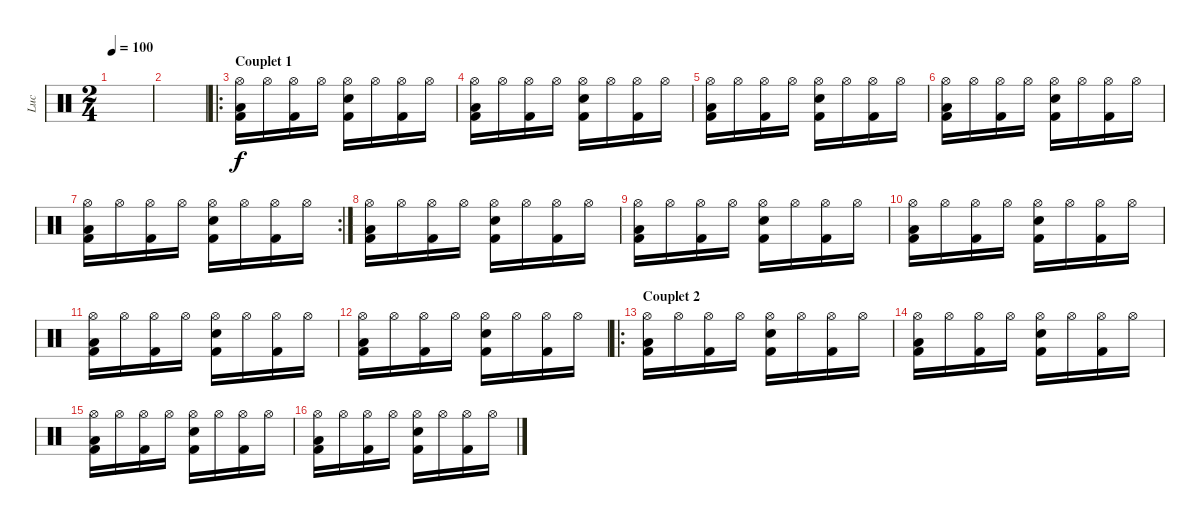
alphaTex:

\track ("Luc" "Luc") {instrument percussion}
\staff {score}
\articulation defaults
\ts (2 4)
\tempo 100
\clef neutral
\ks c
|
|
\ro
\section ("" "Couplet 1")
("Hi-Hat (open)" "Low Tom (hit)" "Kick (hit) 2").16 "Hi-Hat (open)".16 ("Hi-Hat (open)" "Kick (hit) 2").16 "Hi-Hat (open)".16 ("Hi-Hat (open)" "Snare (hit) 2" "Kick (hit) 2").16 "Hi-Hat (open)".16 ("Hi-Hat (open)" "Kick (hit) 2").16 "Hi-Hat (open)".16 |
("Hi-Hat (open)" "Low Tom (hit)" "Kick (hit) 2").16 "Hi-Hat (open)".16 ("Hi-Hat (open)" "Kick (hit) 2").16 "Hi-Hat (open)".16 ("Hi-Hat (open)" "Snare (hit) 2" "Kick (hit) 2").16 "Hi-Hat (open)".16 ("Hi-Hat (open)" "Kick (hit) 2").16 "Hi-Hat (open)".16 |
("Hi-Hat (open)" "Low Tom (hit)" "Kick (hit) 2").16 "Hi-Hat (open)".16 ("Hi-Hat (open)" "Kick (hit) 2").16 "Hi-Hat (open)".16 ("Hi-Hat (open)" "Snare (hit) 2" "Kick (hit) 2").16 "Hi-Hat (open)".16 ("Hi-Hat (open)" "Kick (hit) 2").16 "Hi-Hat (open)".16 |
("Hi-Hat (open)" "Low Tom (hit)" "Kick (hit) 2").16 "Hi-Hat (open)".16 ("Hi-Hat (open)" "Kick (hit) 2").16 "Hi-Hat (open)".16 ("Hi-Hat (open)" "Snare (hit) 2" "Kick (hit) 2").16 "Hi-Hat (open)".16 ("Hi-Hat (open)" "Kick (hit) 2").16 "Hi-Hat (open)".16 |
\rc 2
("Hi-Hat (open)" "Low Tom (hit)" "Kick (hit) 2").16 "Hi-Hat (open)".16 ("Hi-Hat (open)" "Kick (hit) 2").16 "Hi-Hat (open)".16 ("Hi-Hat (open)" "Snare (hit) 2" "Kick (hit) 2").16 "Hi-Hat (open)".16 ("Hi-Hat (open)" "Kick (hit) 2").16 "Hi-Hat (open)".16 |
("Hi-Hat (open)" "Low Tom (hit)" "Kick (hit) 2").16 "Hi-Hat (open)".16 ("Hi-Hat (open)" "Kick (hit) 2").16 "Hi-Hat (open)".16 ("Hi-Hat (open)" "Snare (hit) 2" "Kick (hit) 2").16 "Hi-Hat (open)".16 ("Hi-Hat (open)" "Kick (hit) 2").16 "Hi-Hat (open)".16 |
("Hi-Hat (open)" "Low Tom (hit)" "Kick (hit) 2").16 "Hi-Hat (open)".16 ("Hi-Hat (open)" "Kick (hit) 2").16 "Hi-Hat (open)".16 ("Hi-Hat (open)" "Snare (hit) 2" "Kick (hit) 2").16 "Hi-Hat (open)".16 ("Hi-Hat (open)" "Kick (hit) 2").16 "Hi-Hat (open)".16 |
("Hi-Hat (open)" "Low Tom (hit)" "Kick (hit) 2").16 "Hi-Hat (open)".16 ("Hi-Hat (open)" "Kick (hit) 2").16 "Hi-Hat (open)".16 ("Hi-Hat (open)" "Snare (hit) 2" "Kick (hit) 2").16 "Hi-Hat (open)".16 ("Hi-Hat (open)" "Kick (hit) 2").16 "Hi-Hat (open)".16 |
("Hi-Hat (open)" "Low Tom (hit)" "Kick (hit) 2").16 "Hi-Hat (open)".16 ("Hi-Hat (open)" "Kick (hit) 2").16 "Hi-Hat (open)".16 ("Hi-Hat (open)" "Snare (hit) 2" "Kick (hit) 2").16 "Hi-Hat (open)".16 ("Hi-Hat (open)" "Kick (hit) 2").16 "Hi-Hat (open)".16 |
("Hi-Hat (open)" "Low Tom (hit)" "Kick (hit) 2").16 "Hi-Hat (open)".16 ("Hi-Hat (open)" "Kick (hit) 2").16 "Hi-Hat (open)".16 ("Hi-Hat (open)" "Snare (hit) 2" "Kick (hit) 2").16 "Hi-Hat (open)".16 ("Hi-Hat (open)" "Kick (hit) 2").16 "Hi-Hat (open)".16 |
\ro
\section ("" "Couplet 2")
("Hi-Hat (open)" "Low Tom (hit)" "Kick (hit) 2").16 "Hi-Hat (open)".16 ("Hi-Hat (open)" "Kick (hit) 2").16 "Hi-Hat (open)".16 ("Hi-Hat (open)" "Snare (hit) 2" "Kick (hit) 2").16 "Hi-Hat (open)".16 ("Hi-Hat (open)" "Kick (hit) 2").16 "Hi-Hat (open)".16 |
("Hi-Hat (open)" "Low Tom (hit)" "Kick (hit) 2").16 "Hi-Hat (open)".16 ("Hi-Hat (open)" "Kick (hit) 2").16 "Hi-Hat (open)".16 ("Hi-Hat (open)" "Snare (hit) 2" "Kick (hit) 2").16 "Hi-Hat (open)".16 ("Hi-Hat (open)" "Kick (hit) 2").16 "Hi-Hat (open)".16 |
("Hi-Hat (open)" "Low Tom (hit)" "Kick (hit) 2").16 "Hi-Hat (open)".16 ("Hi-Hat (open)" "Kick (hit) 2").16 "Hi-Hat (open)".16 ("Hi-Hat (open)" "Snare (hit) 2" "Kick (hit) 2").16 "Hi-Hat (open)".16 ("Hi-Hat (open)" "Kick (hit) 2").16 "Hi-Hat (open)".16 |
("Hi-Hat (open)" "Low Tom (hit)" "Kick (hit) 2").16 "Hi-Hat (open)".16 ("Hi-Hat (open)" "Kick (hit) 2").16 "Hi-Hat (open)".16 ("Hi-Hat (open)" "Snare (hit) 2" "Kick (hit) 2").16 "Hi-Hat (open)".16 ("Hi-Hat (open)" "Kick (hit) 2").16 "Hi-Hat (open)".16
